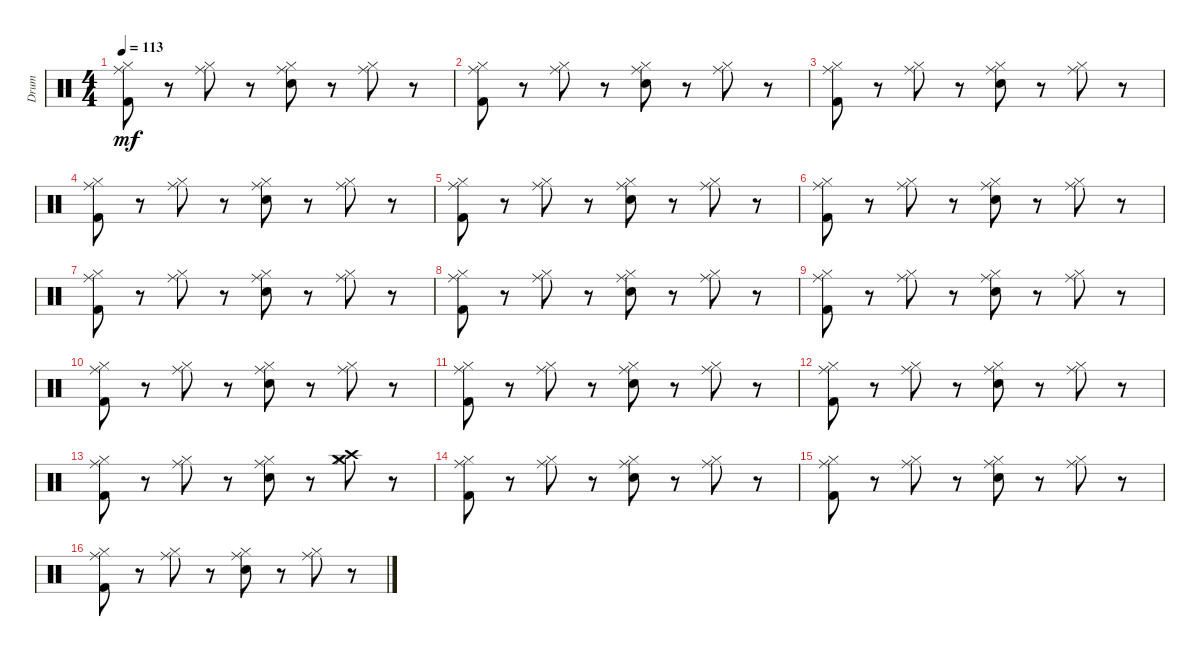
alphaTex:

\track ("Drum" "Drum") {instrument percussion}
\staff {score}
\articulation defaults
\ts (4 4)
\tempo 113
\clef neutral
\ks c
("Ride (middle)" "Hi-Hat (closed)" "Kick (hit) 2").8{dy mf} r.8 ("Ride (middle)" "Hi-Hat (closed)").8 r.8 ("Ride (middle)" "Hi-Hat (closed)" "Snare (hit) 2").8 r.8 ("Ride (middle)" "Hi-Hat (closed)").8 r.8 |
("Ride (middle)" "Hi-Hat (closed)" "Kick (hit) 2").8 r.8 ("Ride (middle)" "Hi-Hat (closed)").8 r.8 ("Ride (middle)" "Hi-Hat (closed)" "Snare (hit) 2").8 r.8 ("Ride (middle)" "Hi-Hat (closed)").8 r.8 |
("Ride (middle)" "Hi-Hat (closed)" "Kick (hit) 2").8 r.8 ("Ride (middle)" "Hi-Hat (closed)").8 r.8 ("Ride (middle)" "Hi-Hat (closed)" "Snare (hit) 2").8 r.8 ("Ride (middle)" "Hi-Hat (closed)").8 r.8 |
("Ride (middle)" "Hi-Hat (closed)" "Kick (hit) 2").8 r.8 ("Ride (middle)" "Hi-Hat (closed)").8 r.8 ("Ride (middle)" "Hi-Hat (closed)" "Snare (hit) 2").8 r.8 ("Ride (middle)" "Hi-Hat (closed)").8 r.8 |
("Ride (middle)" "Hi-Hat (closed)" "Kick (hit) 2").8 r.8 ("Ride (middle)" "Hi-Hat (closed)").8 r.8 ("Ride (middle)" "Hi-Hat (closed)" "Snare (hit) 2").8 r.8 ("Ride (middle)" "Hi-Hat (closed)").8 r.8 |
("Ride (middle)" "Hi-Hat (closed)" "Kick (hit) 2").8 r.8 ("Ride (middle)" "Hi-Hat (closed)").8 r.8 ("Ride (middle)" "Hi-Hat (closed)" "Snare (hit) 2").8 r.8 ("Ride (middle)" "Hi-Hat (closed)").8 r.8 |
("Ride (middle)" "Hi-Hat (closed)" "Kick (hit) 2").8 r.8 ("Ride (middle)" "Hi-Hat (closed)").8 r.8 ("Ride (middle)" "Hi-Hat (closed)" "Snare (hit) 2").8 r.8 ("Ride (middle)" "Hi-Hat (closed)").8 r.8 |
("Ride (middle)" "Hi-Hat (closed)" "Kick (hit) 2").8 r.8 ("Ride (middle)" "Hi-Hat (closed)").8 r.8 ("Ride (middle)" "Hi-Hat (closed)" "Snare (hit) 2").8 r.8 ("Ride (middle)" "Hi-Hat (closed)").8 r.8 |
("Ride (middle)" "Hi-Hat (closed)" "Kick (hit) 2").8 r.8 ("Ride (middle)" "Hi-Hat (closed)").8 r.8 ("Ride (middle)" "Hi-Hat (closed)" "Snare (hit) 2").8 r.8 ("Ride (middle)" "Hi-Hat (closed)").8 r.8 |
("Ride (middle)" "Hi-Hat (closed)" "Kick (hit) 2").8 r.8 ("Ride (middle)" "Hi-Hat (closed)").8 r.8 ("Ride (middle)" "Hi-Hat (closed)" "Snare (hit) 2").8 r.8 ("Ride (middle)" "Hi-Hat (closed)").8 r.8 |
("Ride (middle)" "Hi-Hat (closed)" "Kick (hit) 2").8 r.8 ("Ride (middle)" "Hi-Hat (closed)").8 r.8 ("Ride (middle)" "Hi-Hat (closed)" "Snare (hit) 2").8 r.8 ("Ride (middle)" "Hi-Hat (closed)").8 r.8 |
("Ride (middle)" "Hi-Hat (closed)" "Kick (hit) 2").8 r.8 ("Ride (middle)" "Hi-Hat (closed)").8 r.8 ("Ride (middle)" "Hi-Hat (closed)" "Snare (hit) 2").8 r.8 ("Ride (middle)" "Hi-Hat (closed)").8 r.8 |
("Ride (middle)" "Hi-Hat (closed)" "Kick (hit) 2").8 r.8 ("Ride (middle)" "Hi-Hat (closed)").8 r.8 ("Ride (middle)" "Hi-Hat (closed)" "Snare (hit) 2").8 r.8 ("Crash medium (hit)" "Hi-Hat (closed)" "Crash high (hit)").8 r.8 |
("Ride (middle)" "Hi-Hat (closed)" "Kick (hit) 2").8 r.8 ("Ride (middle)" "Hi-Hat (closed)").8 r.8 ("Ride (middle)" "Hi-Hat (closed)" "Snare (hit) 2").8 r.8 ("Ride (middle)" "Hi-Hat (closed)").8 r.8 |
("Ride (middle)" "Hi-Hat (closed)" "Kick (hit) 2").8 r.8 ("Ride (middle)" "Hi-Hat (closed)").8 r.8 ("Ride (middle)" "Hi-Hat (closed)" "Snare (hit) 2").8 r.8 ("Ride (middle)" "Hi-Hat (closed)").8 r.8 |
("Ride (middle)" "Hi-Hat (closed)" "Kick (hit) 2").8 r.8 ("Ride (middle)" "Hi-Hat (closed)").8 r.8 ("Ride (middle)" "Hi-Hat (closed)" "Snare (hit) 2").8 r.8 ("Ride (middle)" "Hi-Hat (closed)").8 r.8
